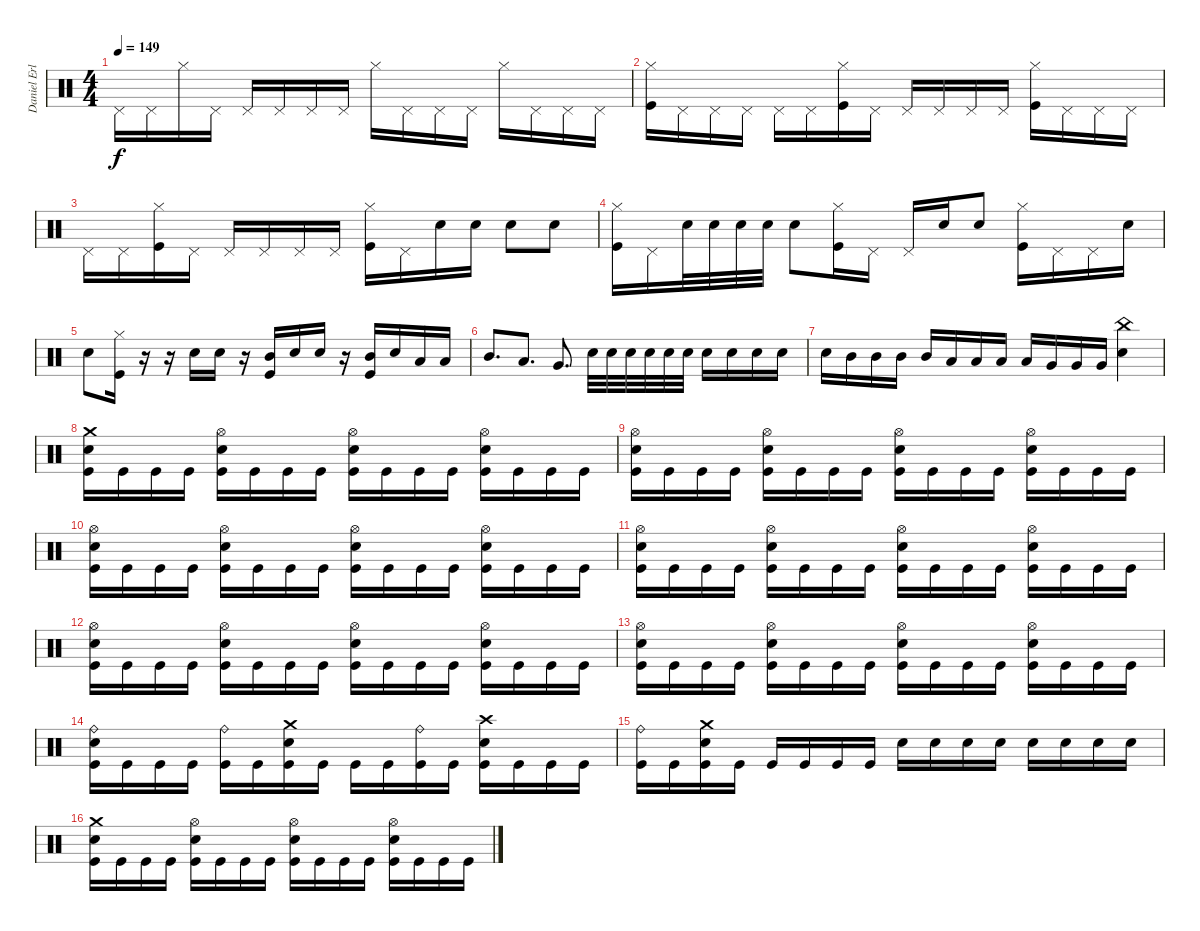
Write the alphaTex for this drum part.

\track ("Daniel Erlandsson" "Daniel Erl") {instrument percussion}
\staff {score}
\articulation defaults
\ts (4 4)
\tempo 149
\clef neutral
\ks c "Pedal Hi-Hat (hit)".16{dy f} "Pedal Hi-Hat (hit)".16 "Hi-Hat (closed)".16 "Pedal Hi-Hat (hit)".16 "Pedal Hi-Hat (hit)".16 "Pedal Hi-Hat (hit)".16 "Pedal Hi-Hat (hit)".16 "Pedal Hi-Hat (hit)".16 "Hi-Hat (closed)".16 "Pedal Hi-Hat (hit)".16 "Pedal Hi-Hat (hit)".16 "Pedal Hi-Hat (hit)".16 "Hi-Hat (closed)".16 "Pedal Hi-Hat (hit)".16 "Pedal Hi-Hat (hit)".16 "Pedal Hi-Hat (hit)".16
|
("Kick (hit)" "Hi-Hat (closed)").16 "Pedal Hi-Hat (hit)".16 "Pedal Hi-Hat (hit)".16 "Pedal Hi-Hat (hit)".16 "Pedal Hi-Hat (hit)".16 "Pedal Hi-Hat (hit)".16 ("Kick (hit)" "Hi-Hat (closed)").16 "Pedal Hi-Hat (hit)".16 "Pedal Hi-Hat (hit)".16 "Pedal Hi-Hat (hit)".16 "Pedal Hi-Hat (hit)".16 "Pedal Hi-Hat (hit)".16 ("Kick (hit)" "Hi-Hat (closed)").16 "Pedal Hi-Hat (hit)".16 "Pedal Hi-Hat (hit)".16 "Pedal Hi-Hat (hit)".16 |
"Pedal Hi-Hat (hit)".16 "Pedal Hi-Hat (hit)".16 ("Kick (hit)" "Hi-Hat (closed)").16 "Pedal Hi-Hat (hit)".16 "Pedal Hi-Hat (hit)".16 "Pedal Hi-Hat (hit)".16 "Pedal Hi-Hat (hit)".16 "Pedal Hi-Hat (hit)".16 ("Kick (hit)" "Hi-Hat (closed)").16 "Pedal Hi-Hat (hit)".16 "Electric Snare (hit)".16 "Electric Snare (hit)".16 "Electric Snare (hit)".8 "Electric Snare (hit)".8 |
("Kick (hit)" "Hi-Hat (closed)").16 "Pedal Hi-Hat (hit)".16 "Electric Snare (hit)".32 "Electric Snare (hit)".32 "Electric Snare (hit)".32 "Electric Snare (hit)".32 "Electric Snare (hit)".8 ("Kick (hit)" "Hi-Hat (closed)").16 "Pedal Hi-Hat (hit)".16 "Pedal Hi-Hat (hit)".16 "Electric Snare (hit)".16 "Electric Snare (hit)".8 ("Kick (hit)" "Hi-Hat (closed)").16 "Pedal Hi-Hat (hit)".16 "Pedal Hi-Hat (hit)".16 "Electric Snare (hit)".16 |
"Electric Snare (hit)".8 ("Kick (hit)" "Hi-Hat (closed)").16 r.16 r.16 "Electric Snare (hit)".16 "Electric Snare (hit)".16 r.16 ("Kick (hit)" "Mid Tom (hit)").16 "Electric Snare (hit)".16 "Electric Snare (hit)".16 r.16 ("Kick (hit)" "Mid Tom (hit)").16 "Electric Snare (hit)".16 "Low Tom (hit)".16 "Low Tom (hit)".16 |
"Mid Tom (hit)".8{d} "Low Tom (hit)".8{d} "Very Low Tom (hit)".8{d} "Electric Snare (hit)".32 "Electric Snare (hit)".32 "Electric Snare (hit)".32 "Electric Snare (hit)".32 "Electric Snare (hit)".32 "Electric Snare (hit)".32 "Electric Snare (hit)".16 "Electric Snare (hit)".16 "Electric Snare (hit)".16 "Electric Snare (hit)".16 |
"Electric Snare (hit)".16 "Mid Tom (hit)".16 "Mid Tom (hit)".16 "Mid Tom (hit)".16 "Mid Tom (hit)".16 "Low Tom (hit)".16 "Low Tom (hit)".16 "Low Tom (hit)".16 "Low Tom (hit)".16 "Very Low Tom (hit)".16 "Very Low Tom (hit)".16 "Very Low Tom (hit)".16 ("Electric Snare (hit)" "China (hit)").4 |
("Kick (hit)" "Electric Snare (hit)" "Crash medium (hit)").16 "Kick (hit)".16 "Kick (hit)".16 "Kick (hit)".16 ("Kick (hit)" "Electric Snare (hit)" "Hi-Hat (open)").16 "Kick (hit)".16 "Kick (hit)".16 "Kick (hit)".16 ("Kick (hit)" "Electric Snare (hit)" "Hi-Hat (open)").16 "Kick (hit)".16 "Kick (hit)".16 "Kick (hit)".16 ("Kick (hit)" "Electric Snare (hit)" "Hi-Hat (open)").16 "Kick (hit)".16 "Kick (hit)".16 "Kick (hit)".16 |
("Kick (hit)" "Electric Snare (hit)" "Hi-Hat (open)").16 "Kick (hit)".16 "Kick (hit)".16 "Kick (hit)".16 ("Kick (hit)" "Electric Snare (hit)" "Hi-Hat (open)").16 "Kick (hit)".16 "Kick (hit)".16 "Kick (hit)".16 ("Kick (hit)" "Electric Snare (hit)" "Hi-Hat (open)").16 "Kick (hit)".16 "Kick (hit)".16 "Kick (hit)".16 ("Kick (hit)" "Electric Snare (hit)" "Hi-Hat (open)").16 "Kick (hit)".16 "Kick (hit)".16 "Kick (hit)".16 |
("Kick (hit)" "Electric Snare (hit)" "Hi-Hat (open)").16 "Kick (hit)".16 "Kick (hit)".16 "Kick (hit)".16 ("Kick (hit)" "Electric Snare (hit)" "Hi-Hat (open)").16 "Kick (hit)".16 "Kick (hit)".16 "Kick (hit)".16 ("Kick (hit)" "Electric Snare (hit)" "Hi-Hat (open)").16 "Kick (hit)".16 "Kick (hit)".16 "Kick (hit)".16 ("Kick (hit)" "Electric Snare (hit)" "Hi-Hat (open)").16 "Kick (hit)".16 "Kick (hit)".16 "Kick (hit)".16 |
("Kick (hit)" "Electric Snare (hit)" "Hi-Hat (open)").16 "Kick (hit)".16 "Kick (hit)".16 "Kick (hit)".16 ("Kick (hit)" "Electric Snare (hit)" "Hi-Hat (open)").16 "Kick (hit)".16 "Kick (hit)".16 "Kick (hit)".16 ("Kick (hit)" "Electric Snare (hit)" "Hi-Hat (open)").16 "Kick (hit)".16 "Kick (hit)".16 "Kick (hit)".16 ("Kick (hit)" "Electric Snare (hit)" "Hi-Hat (open)").16 "Kick (hit)".16 "Kick (hit)".16 "Kick (hit)".16 |
("Kick (hit)" "Electric Snare (hit)" "Hi-Hat (open)").16 "Kick (hit)".16 "Kick (hit)".16 "Kick (hit)".16 ("Kick (hit)" "Electric Snare (hit)" "Hi-Hat (open)").16 "Kick (hit)".16 "Kick (hit)".16 "Kick (hit)".16 ("Kick (hit)" "Electric Snare (hit)" "Hi-Hat (open)").16 "Kick (hit)".16 "Kick (hit)".16 "Kick (hit)".16 ("Kick (hit)" "Electric Snare (hit)" "Hi-Hat (open)").16 "Kick (hit)".16 "Kick (hit)".16 "Kick (hit)".16 |
("Kick (hit)" "Electric Snare (hit)" "Hi-Hat (open)").16 "Kick (hit)".16 "Kick (hit)".16 "Kick (hit)".16 ("Kick (hit)" "Electric Snare (hit)" "Hi-Hat (open)").16 "Kick (hit)".16 "Kick (hit)".16 "Kick (hit)".16 ("Kick (hit)" "Electric Snare (hit)" "Hi-Hat (open)").16 "Kick (hit)".16 "Kick (hit)".16 "Kick (hit)".16 ("Kick (hit)" "Electric Snare (hit)" "Hi-Hat (open)").16 "Kick (hit)".16 "Kick (hit)".16 "Kick (hit)".16 |
("Kick (hit)" "Electric Snare (hit)" "Ride (bell)").16 "Kick (hit)".16 "Kick (hit)".16 "Kick (hit)".16 ("Kick (hit)" "Ride (bell)").16 "Kick (hit)".16 ("Kick (hit)" "Electric Snare (hit)" "Crash medium (hit)").16 "Kick (hit)".16 "Kick (hit)".16 "Kick (hit)".16 ("Kick (hit)" "Ride (bell)").16 "Kick (hit)".16 ("Kick (hit)" "Electric Snare (hit)" "Crash high (hit)").16 "Kick (hit)".16 "Kick (hit)".16 "Kick (hit)".16 |
("Kick (hit)" "Ride (bell)").16 "Kick (hit)".16 ("Kick (hit)" "Electric Snare (hit)" "Crash medium (hit)").16 "Kick (hit)".16 "Kick (hit)".16 "Kick (hit)".16 "Kick (hit)".16 "Kick (hit)".16 "Electric Snare (hit)".16 "Electric Snare (hit)".16 "Electric Snare (hit)".16 "Electric Snare (hit)".16 "Electric Snare (hit)".16 "Electric Snare (hit)".16 "Electric Snare (hit)".16 "Electric Snare (hit)".16 |
("Kick (hit)" "Electric Snare (hit)" "Crash medium (hit)").16 "Kick (hit)".16 "Kick (hit)".16 "Kick (hit)".16 ("Kick (hit)" "Electric Snare (hit)" "Hi-Hat (open)").16 "Kick (hit)".16 "Kick (hit)".16 "Kick (hit)".16 ("Kick (hit)" "Electric Snare (hit)" "Hi-Hat (open)").16 "Kick (hit)".16 "Kick (hit)".16 "Kick (hit)".16 ("Kick (hit)" "Electric Snare (hit)" "Hi-Hat (open)").16 "Kick (hit)".16 "Kick (hit)".16 "Kick (hit)".16
